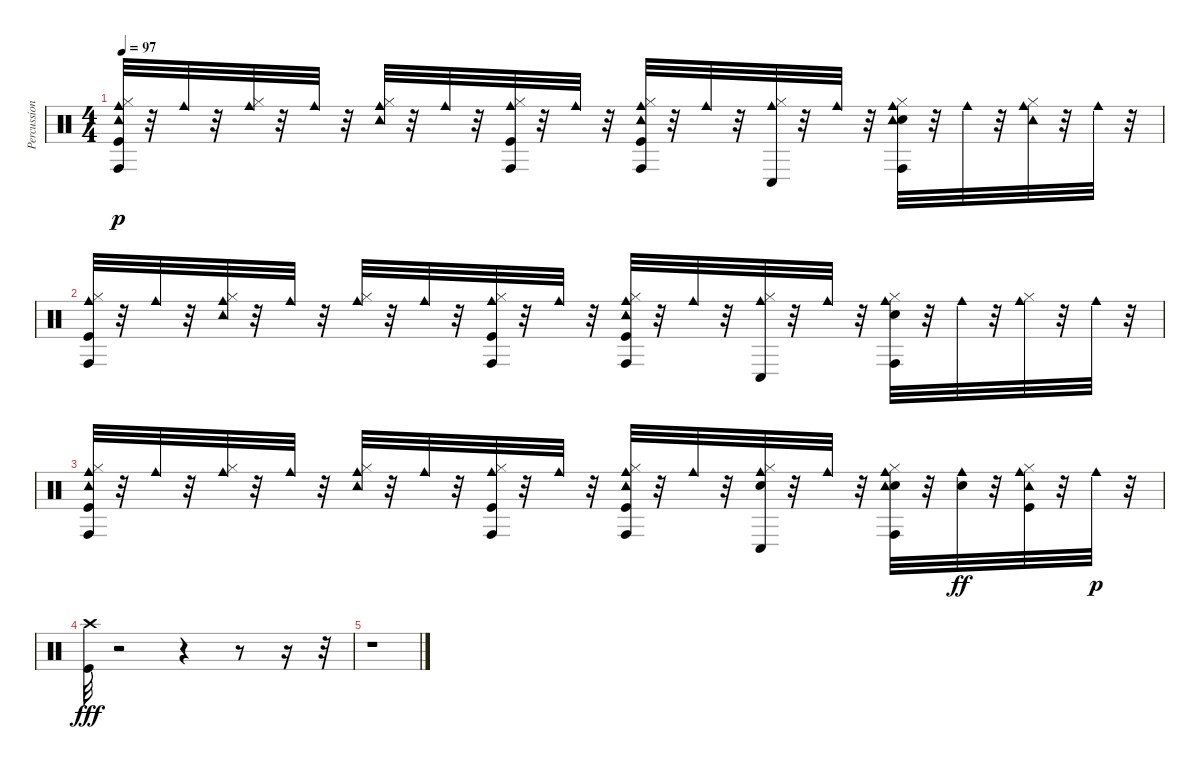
\track ("Percussion" "Percussion") {instrument percussion}
\staff {score}
\articulation defaults
\ts (4 4)
\tempo 97
\clef neutral
\ks c
("Kick (hit)" "Hi-Hat (closed)" "Tambourine (hit)" "Cowbell medium (hit)" "Conga high (hit)").32{dy p} r.32 "Cowbell medium (hit)".32 r.32 ("Hi-Hat (closed)" "Cowbell medium (hit)").32 r.32 "Cowbell medium (hit)".32 r.32 ("Hi-Hat (closed)" "Tambourine (hit)" "Cowbell medium (hit)").32 r.32 "Cowbell medium (hit)".32 r.32 ("Kick (hit)" "Hi-Hat (closed)" "Cowbell medium (hit)" "Conga high (hit)").32 r.32 "Cowbell medium (hit)".32 r.32 ("Kick (hit)" "Hi-Hat (closed)" "Tambourine (hit)" "Cowbell medium (hit)" "Conga high (hit)").32 r.32 "Cowbell medium (hit)".32 r.32 ("Conga low (hit)" "Hi-Hat (closed)" "Cowbell medium (hit)").32 r.32 "Cowbell medium (hit)".32 r.32 ("Conga high (hit)" "Snare (hit) 2" "Hi-Hat (closed)" "Tambourine (hit)" "Cowbell medium (hit)").32 r.32 "Cowbell medium (hit)".32 r.32 ("Hi-Hat (closed)" "Tambourine (hit)" "Cowbell medium (hit)").32 r.32 "Cowbell medium (hit)".32 r.32 |
("Kick (hit)" "Hi-Hat (closed)" "Cowbell medium (hit)" "Conga high (hit)").32 r.32 "Cowbell medium (hit)".32 r.32 ("Hi-Hat (closed)" "Tambourine (hit)" "Cowbell medium (hit)").32 r.32 "Cowbell medium (hit)".32 r.32 ("Hi-Hat (closed)" "Cowbell medium (hit)").32 r.32 "Cowbell medium (hit)".32 r.32 ("Kick (hit)" "Hi-Hat (closed)" "Cowbell medium (hit)" "Conga high (hit)").32 r.32 "Cowbell medium (hit)".32 r.32 ("Kick (hit)" "Hi-Hat (closed)" "Tambourine (hit)" "Cowbell medium (hit)" "Conga high (hit)").32 r.32 "Cowbell medium (hit)".32 r.32 ("Conga low (hit)" "Hi-Hat (closed)" "Cowbell medium (hit)").32 r.32 "Cowbell medium (hit)".32 r.32 ("Conga high (hit)" "Snare (hit) 2" "Hi-Hat (closed)" "Cowbell medium (hit)").32 r.32 "Cowbell medium (hit)".32 r.32 ("Hi-Hat (closed)" "Cowbell medium (hit)").32 r.32 "Cowbell medium (hit)".32 r.32 |
("Kick (hit)" "Hi-Hat (closed)" "Tambourine (hit)" "Cowbell medium (hit)" "Conga high (hit)").32 r.32 "Cowbell medium (hit)".32 r.32 ("Hi-Hat (closed)" "Cowbell medium (hit)").32 r.32 "Cowbell medium (hit)".32 r.32 ("Hi-Hat (closed)" "Tambourine (hit)" "Cowbell medium (hit)").32 r.32 "Cowbell medium (hit)".32 r.32 ("Kick (hit)" "Hi-Hat (closed)" "Cowbell medium (hit)" "Conga high (hit)").32 r.32 "Cowbell medium (hit)".32 r.32 ("Kick (hit)" "Hi-Hat (closed)" "Tambourine (hit)" "Cowbell medium (hit)" "Conga high (hit)").32 r.32 "Cowbell medium (hit)".32 r.32 ("Conga low (hit)" "Snare (hit) 2" "Hi-Hat (closed)" "Cowbell medium (hit)").32 r.32 "Cowbell medium (hit)".32 r.32 ("Conga high (hit)" "Snare (hit) 2" "Hi-Hat (closed)" "Tambourine (hit)" "Cowbell medium (hit)").32 r.32 ("Cowbell medium (hit)" "Snare (hit) 2").32{dy ff} r.32 ("Hi-Hat (closed)" "Tambourine (hit)" "Cowbell medium (hit)" "Kick (hit)").32 r.32 "Cowbell medium (hit)".32{dy p} r.32 |
("Crash high (hit)" "Kick (hit)").32{dy fff} r.2 r.4 r.8 r.16 r.32 |
r.1
